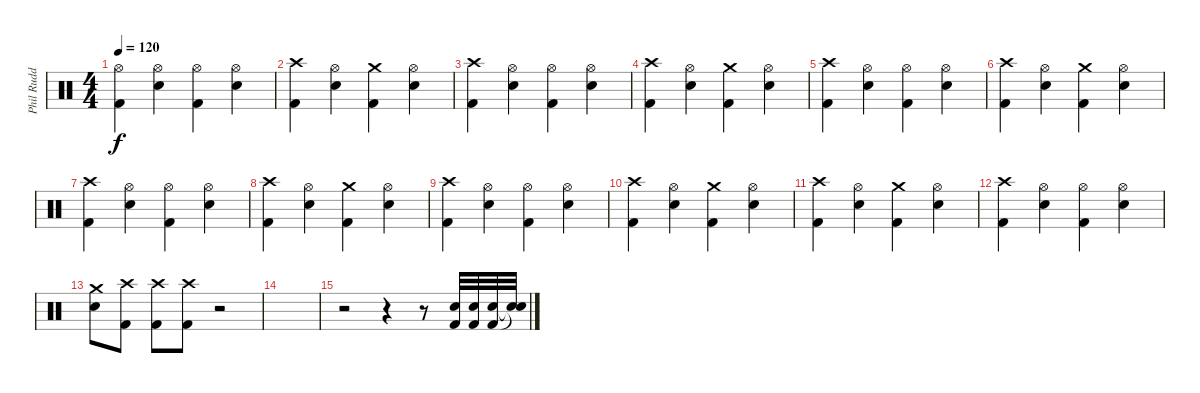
\track ("Phil Rudd (Drum)" "Phil Rudd ") {instrument percussion}
\staff {score}
\articulation defaults
\ts (4 4)
\tempo 120
\clef neutral
\ks c
("Hi-Hat (open)" "Kick (hit) 2").4{dy f} ("Hi-Hat (open)" "Snare (hit) 2").4 ("Hi-Hat (open)" "Kick (hit) 2").4 ("Hi-Hat (open)" "Snare (hit) 2").4 |
("Crash high (hit)" "Kick (hit) 2").4 ("Hi-Hat (open)" "Snare (hit) 2").4 ("Crash medium (hit)" "Kick (hit) 2").4 ("Hi-Hat (open)" "Snare (hit) 2").4 |
("Crash high (hit)" "Kick (hit) 2").4 ("Hi-Hat (open)" "Snare (hit) 2").4 ("Hi-Hat (open)" "Kick (hit) 2").4 ("Hi-Hat (open)" "Snare (hit) 2").4 |
("Crash high (hit)" "Kick (hit) 2").4 ("Hi-Hat (open)" "Snare (hit) 2").4 ("Crash medium (hit)" "Kick (hit) 2").4 ("Hi-Hat (open)" "Snare (hit) 2").4 |
("Crash high (hit)" "Kick (hit) 2").4 ("Hi-Hat (open)" "Snare (hit) 2").4 ("Hi-Hat (open)" "Kick (hit) 2").4 ("Hi-Hat (open)" "Snare (hit) 2").4 |
("Crash high (hit)" "Kick (hit) 2").4 ("Hi-Hat (open)" "Snare (hit) 2").4 ("Crash medium (hit)" "Kick (hit) 2").4 ("Hi-Hat (open)" "Snare (hit) 2").4 |
("Crash high (hit)" "Kick (hit) 2").4 ("Hi-Hat (open)" "Snare (hit) 2").4 ("Hi-Hat (open)" "Kick (hit) 2").4 ("Hi-Hat (open)" "Snare (hit) 2").4 |
("Crash high (hit)" "Kick (hit) 2").4 ("Hi-Hat (open)" "Snare (hit) 2").4 ("Crash medium (hit)" "Kick (hit) 2").4 ("Hi-Hat (open)" "Snare (hit) 2").4 |
("Crash high (hit)" "Kick (hit) 2").4 ("Hi-Hat (open)" "Snare (hit) 2").4 ("Hi-Hat (open)" "Kick (hit) 2").4 ("Hi-Hat (open)" "Snare (hit) 2").4 |
("Crash high (hit)" "Kick (hit) 2").4 ("Hi-Hat (open)" "Snare (hit) 2").4 ("Crash medium (hit)" "Kick (hit) 2").4 ("Hi-Hat (open)" "Snare (hit) 2").4 |
("Crash high (hit)" "Kick (hit) 2").4 ("Hi-Hat (open)" "Snare (hit) 2").4 ("Crash medium (hit)" "Kick (hit) 2").4 ("Hi-Hat (open)" "Snare (hit) 2").4 |
("Crash high (hit)" "Kick (hit) 2").4 ("Hi-Hat (open)" "Snare (hit) 2").4 ("Hi-Hat (open)" "Kick (hit) 2").4 ("Hi-Hat (open)" "Snare (hit) 2").4 |
("Crash medium (hit)" "Snare (hit) 2").8 ("Crash high (hit)" "Kick (hit) 2").8 ("Crash high (hit)" "Kick (hit) 2").8 ("Crash high (hit)" "Kick (hit) 2").8 r.2 |
|
r.2 r.4 r.8 ("Snare (hit) 2" "Kick (hit) 2").32 ("Snare (hit) 2" "Kick (hit) 2").32 ("Snare (hit) 2" "Kick (hit) 2").32 ("Snare (hit)"{t} "Snare (hit)"{t}).32
